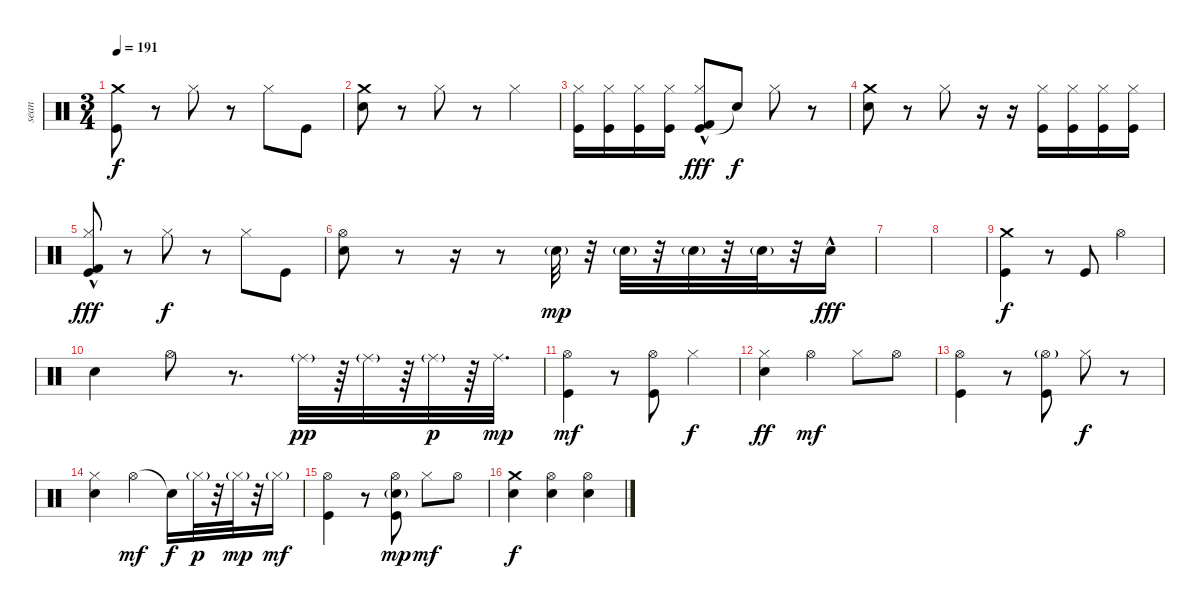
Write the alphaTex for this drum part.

\track ("sean" "sean") {instrument percussion}
\staff {score}
\articulation defaults
\ts (3 4)
\tempo 191
\clef neutral
\ks c
("Crash medium (hit)" "Kick (hit)").8{dy f} r.8 "Hi-Hat (closed)".8 r.8 "Hi-Hat (closed)".8 "Kick (hit)".8 |
("Crash medium (hit)" "Electric Snare (hit)").8 r.8 "Hi-Hat (closed)".8 r.8 "Hi-Hat (closed)".4 |
("Hi-Hat (closed)" "Kick (hit)").16 ("Hi-Hat (closed)" "Kick (hit)").16 ("Hi-Hat (closed)" "Kick (hit)").16 ("Hi-Hat (closed)" "Kick (hit)").16 ("Kick (hit)" "Hi-Hat (closed)"{hac} "Kick (hit) 2").8{dy fff} "Snare (hit)"{t}.8{dy f} "Hi-Hat (closed)".8 r.8 |
("Crash medium (hit)" "Electric Snare (hit)").8 r.8 "Hi-Hat (closed)".8 r.16 r.16 ("Hi-Hat (closed)" "Kick (hit)").16 ("Hi-Hat (closed)" "Kick (hit)").16 ("Hi-Hat (closed)" "Kick (hit)").16 ("Hi-Hat (closed)" "Kick (hit)").16 |
("Kick (hit)"{hac} "Hi-Hat (closed)" "Kick (hit) 2").8{dy fff} r.8 "Hi-Hat (closed)".8{dy f} r.8 "Hi-Hat (closed)".8 "Kick (hit)".8 |
("Hi-Hat (open)" "Electric Snare (hit)").8 r.8 r.16 r.8 "Electric Snare (hit)"{g}.32{dy mp} r.32 "Electric Snare (hit)"{g}.32 r.32 "Electric Snare (hit)"{g}.32 r.32 "Electric Snare (hit)"{g}.32 r.32 "Electric Snare (hit)"{hac}.16{dy fff} |
|
|
("Crash medium (hit)" "Kick (hit)").4{dy f} r.8 "Kick (hit)".8 "Hi-Hat (open)".4 |
"Electric Snare (hit)".4 "Hi-Hat (open)".8 r.8{d} "Ride (middle)"{g}.32{dy pp} r.64 "Ride (middle)"{g}.32 r.64 "Ride (middle)"{g}.32{dy p} r.64 "Ride (middle)".32{d dy mp} |
("Hi-Hat (open)" "Kick (hit)").4{dy mf} r.8 ("Hi-Hat (open)" "Kick (hit)").8 "Hi-Hat (closed)".4{dy f} |
("Electric Snare (hit)" "Hi-Hat (closed)").4{dy ff} "Hi-Hat (open)".4{dy mf} "Hi-Hat (closed)".8 "Hi-Hat (open)".8 |
("Hi-Hat (open)" "Kick (hit)").4 r.8 ("Hi-Hat (open)"{g} "Kick (hit)").8 "Hi-Hat (closed)".8{dy f} r.8 |
("Electric Snare (hit)" "Hi-Hat (closed)").4 "Hi-Hat (open)".4{dy mf} "Snare (hit)"{t}.16{dy f} "Hi-Hat (closed)"{g}.32{dy p} r.32 "Hi-Hat (closed)"{g}.32{dy mp} r.32 "Hi-Hat (closed)"{g}.16{dy mf} |
("Hi-Hat (open)" "Kick (hit)").4 r.8 ("Hi-Hat (open)" "Kick (hit)" "Electric Snare (hit)"{g}).8{dy mp} "Hi-Hat (closed)".8{dy mf} "Hi-Hat (open)".8 |
("Electric Snare (hit)" "Crash medium (hit)").4{dy f} ("Electric Snare (hit)" "Hi-Hat (open)").4 ("Electric Snare (hit)" "Hi-Hat (open)").4
